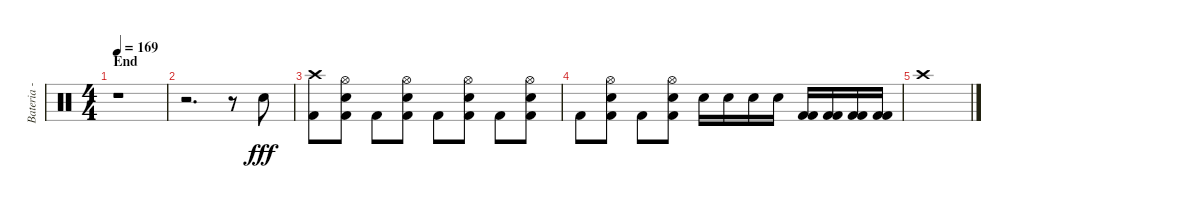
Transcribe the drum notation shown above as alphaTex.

\track ("Bateria - Larzon" "Bateria - ") {instrument percussion}
\staff {score}
\articulation defaults
\ts (4 4)
\section ("" "End")
\tempo 169
\clef neutral
\ks c
r.1{dy fff} |
r.2{d} r.8 "Snare (hit) 2".8 |
("Crash high (hit)" "Kick (hit) 2").8 ("Kick (hit) 2" "Hi-Hat (open)" "Snare (hit) 2").8 "Kick (hit) 2".8 ("Kick (hit) 2" "Hi-Hat (open)" "Snare (hit) 2").8 "Kick (hit) 2".8 ("Kick (hit) 2" "Hi-Hat (open)" "Snare (hit) 2").8 "Kick (hit) 2".8 ("Kick (hit) 2" "Hi-Hat (open)" "Snare (hit) 2").8 |
"Kick (hit) 2".8 ("Kick (hit) 2" "Hi-Hat (open)" "Snare (hit) 2").8 "Kick (hit) 2".8 ("Kick (hit) 2" "Hi-Hat (open)" "Snare (hit) 2").8 "Snare (hit) 2".16 "Snare (hit) 2".16 "Snare (hit) 2".16 "Snare (hit) 2".16 ("Kick (hit) 2" "Kick (hit) 2").16 ("Kick (hit) 2" "Kick (hit) 2").16 ("Kick (hit) 2" "Kick (hit) 2").16 ("Kick (hit) 2" "Kick (hit) 2").16 |
"Crash high (hit)".1
